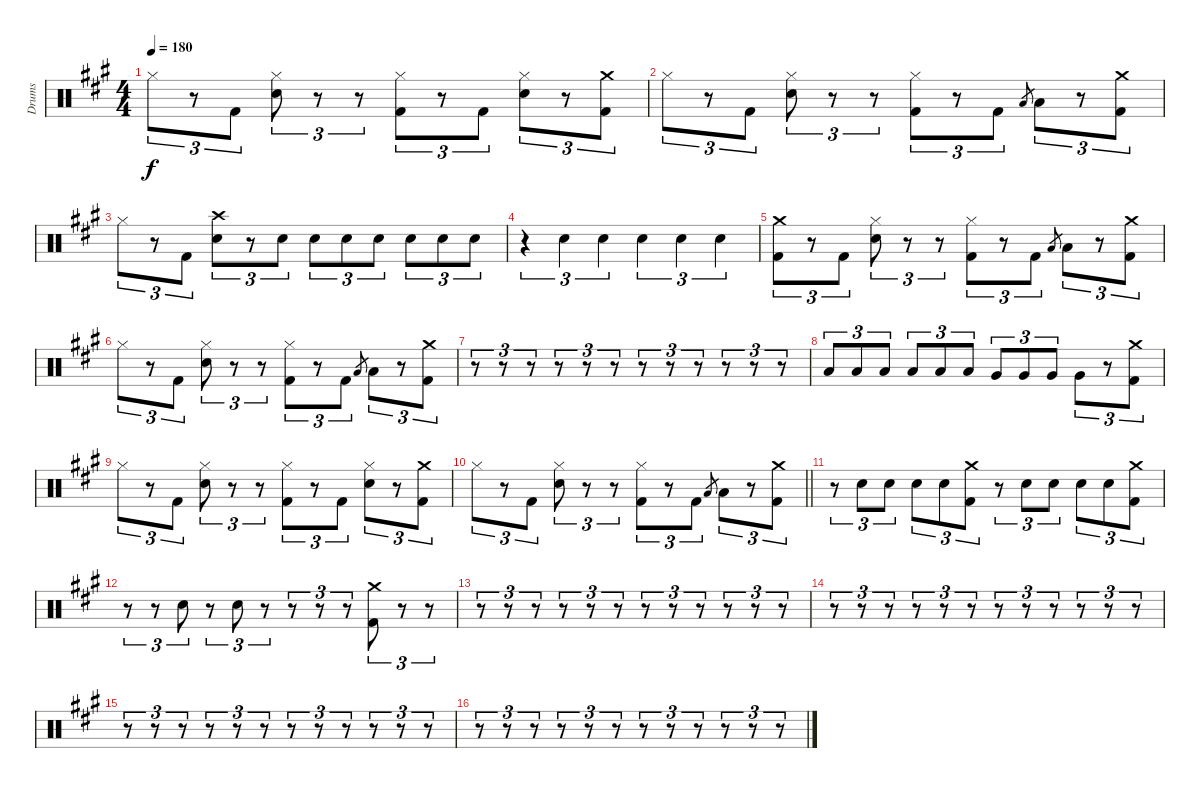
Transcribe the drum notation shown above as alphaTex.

\track ("Drums" "Drums") {instrument percussion}
\staff {score}
\articulation defaults
\ts (4 4)
\tempo 180
\clef neutral
\ks a "Hi-Hat (closed)".8{tu (3 2) dy f}
r.8{tu (3 2)} "Kick (hit) 2".8{tu (3 2)} ("Hi-Hat (closed)" "Snare (hit) 2").8{tu (3 2)} r.8{tu (3 2)} r.8{tu (3 2)} ("Hi-Hat (closed)" "Kick (hit) 2").8{tu (3 2)} r.8{tu (3 2)} "Kick (hit) 2".8{tu (3 2)} ("Hi-Hat (closed)" "Snare (hit) 2").8{tu (3 2)} r.8{tu (3 2)} ("Crash medium (hit)" "Kick (hit) 2").8{tu (3 2)} |
"Hi-Hat (closed)".8{tu (3 2)} r.8{tu (3 2)} "Kick (hit) 2".8{tu (3 2)} ("Hi-Hat (closed)" "Snare (hit) 2").8{tu (3 2)} r.8{tu (3 2)} r.8{tu (3 2)} ("Hi-Hat (closed)" "Kick (hit) 2").8{tu (3 2)} r.8{tu (3 2)} "Kick (hit) 2".8{tu (3 2)} "Low Tom (hit)".8{gr} "Low Floor Tom (hit)".8{tu (3 2)} r.8{tu (3 2)} ("Crash medium (hit)" "Kick (hit) 2").8{tu (3 2)} |
"Hi-Hat (closed)".8{tu (3 2)} r.8{tu (3 2)} "Kick (hit) 2".8{tu (3 2)} ("Crash high (hit)" "Snare (hit) 2").8{tu (3 2)} r.8{tu (3 2)} "Snare (hit) 2".8{tu (3 2)} "Snare (hit) 2".8{tu (3 2)} "Snare (hit) 2".8{tu (3 2)} "Snare (hit) 2".8{tu (3 2)} "Snare (hit) 2".8{tu (3 2)} "Snare (hit) 2".8{tu (3 2)} "Snare (hit) 2".8{tu (3 2)} |
r.4{tu (3 2)} "Snare (hit) 2".4{tu (3 2)} "Snare (hit) 2".4{tu (3 2)} "Snare (hit) 2".4{tu (3 2)} "Snare (hit) 2".4{tu (3 2)} "Snare (hit) 2".4{tu (3 2)} |
("Crash medium (hit)" "Kick (hit) 2").8{tu (3 2)} r.8{tu (3 2)} "Kick (hit) 2".8{tu (3 2)} ("Hi-Hat (closed)" "Snare (hit) 2").8{tu (3 2)} r.8{tu (3 2)} r.8{tu (3 2)} ("Hi-Hat (closed)" "Kick (hit) 2").8{tu (3 2)} r.8{tu (3 2)} "Kick (hit) 2".8{tu (3 2)} "Low Tom (hit)".8{gr} "Low Floor Tom (hit)".8{tu (3 2)} r.8{tu (3 2)} ("Crash medium (hit)" "Kick (hit) 2").8{tu (3 2)} |
"Hi-Hat (closed)".8{tu (3 2)} r.8{tu (3 2)} "Kick (hit) 2".8{tu (3 2)} ("Hi-Hat (closed)" "Snare (hit) 2").8{tu (3 2)} r.8{tu (3 2)} r.8{tu (3 2)} ("Hi-Hat (closed)" "Kick (hit) 2").8{tu (3 2)} r.8{tu (3 2)} "Kick (hit) 2".8{tu (3 2)} "Low Tom (hit)".8{gr} "Low Floor Tom (hit)".8{tu (3 2)} r.8{tu (3 2)} ("Crash medium (hit)" "Kick (hit) 2").8{tu (3 2)} |
r.8{tu (3 2)} r.8{tu (3 2)} r.8{tu (3 2)} r.8{tu (3 2)} r.8{tu (3 2)} r.8{tu (3 2)} r.8{tu (3 2)} r.8{tu (3 2)} r.8{tu (3 2)} r.8{tu (3 2)} r.8{tu (3 2)} r.8{tu (3 2)} |
"Low Tom (hit)".8{tu (3 2)} "Low Tom (hit)".8{tu (3 2)} "Low Tom (hit)".8{tu (3 2)} "Low Tom (hit)".8{tu (3 2)} "Low Tom (hit)".8{tu (3 2)} "Low Tom (hit)".8{tu (3 2)} "Very Low Tom (hit)".8{tu (3 2)} "Very Low Tom (hit)".8{tu (3 2)} "Very Low Tom (hit)".8{tu (3 2)} "Very Low Tom (hit)".8{tu (3 2)} r.8{tu (3 2)} ("Crash medium (hit)" "Kick (hit) 2").8{tu (3 2)} |
"Hi-Hat (closed)".8{tu (3 2)} r.8{tu (3 2)} "Kick (hit) 2".8{tu (3 2)} ("Hi-Hat (closed)" "Snare (hit) 2").8{tu (3 2)} r.8{tu (3 2)} r.8{tu (3 2)} ("Hi-Hat (closed)" "Kick (hit) 2").8{tu (3 2)} r.8{tu (3 2)} "Kick (hit) 2".8{tu (3 2)} ("Hi-Hat (closed)" "Snare (hit) 2").8{tu (3 2)} r.8{tu (3 2)} ("Crash medium (hit)" "Kick (hit) 2").8{tu (3 2)} |
\barLineRight lightlight "Hi-Hat (closed)".8{tu (3 2)}
r.8{tu (3 2)} "Kick (hit) 2".8{tu (3 2)} ("Hi-Hat (closed)" "Snare (hit) 2").8{tu (3 2)} r.8{tu (3 2)} r.8{tu (3 2)} ("Hi-Hat (closed)" "Kick (hit) 2").8{tu (3 2)} r.8{tu (3 2)} "Kick (hit) 2".8{tu (3 2)} "Low Tom (hit)".8{gr} "Low Floor Tom (hit)".8{tu (3 2)} r.8{tu (3 2)} ("Crash medium (hit)" "Kick (hit) 2").8{tu (3 2)} |
r.8{tu (3 2)} "Snare (hit) 2".8{tu (3 2)} "Snare (hit) 2".8{tu (3 2)} "Snare (hit) 2".8{tu (3 2)} "Snare (hit) 2".8{tu (3 2)} ("Crash medium (hit)" "Kick (hit) 2").8{tu (3 2)} r.8{tu (3 2)} "Snare (hit) 2".8{tu (3 2)} "Snare (hit) 2".8{tu (3 2)} "Snare (hit) 2".8{tu (3 2)} "Snare (hit) 2".8{tu (3 2)} ("Crash medium (hit)" "Kick (hit) 2").8{tu (3 2)} |
r.8{tu (3 2)} r.8{tu (3 2)} "Snare (hit) 2".8{tu (3 2)} r.8{tu (3 2)} "Snare (hit) 2".8{tu (3 2)} r.8{tu (3 2)} r.8{tu (3 2)} r.8{tu (3 2)} r.8{tu (3 2)} ("Crash medium (hit)" "Kick (hit) 2").8{tu (3 2)} r.8{tu (3 2)} r.8{tu (3 2)} |
r.8{tu (3 2)} r.8{tu (3 2)} r.8{tu (3 2)} r.8{tu (3 2)} r.8{tu (3 2)} r.8{tu (3 2)} r.8{tu (3 2)} r.8{tu (3 2)} r.8{tu (3 2)} r.8{tu (3 2)} r.8{tu (3 2)} r.8{tu (3 2)} |
r.8{tu (3 2)} r.8{tu (3 2)} r.8{tu (3 2)} r.8{tu (3 2)} r.8{tu (3 2)} r.8{tu (3 2)} r.8{tu (3 2)} r.8{tu (3 2)} r.8{tu (3 2)} r.8{tu (3 2)} r.8{tu (3 2)} r.8{tu (3 2)} |
r.8{tu (3 2)} r.8{tu (3 2)} r.8{tu (3 2)} r.8{tu (3 2)} r.8{tu (3 2)} r.8{tu (3 2)} r.8{tu (3 2)} r.8{tu (3 2)} r.8{tu (3 2)} r.8{tu (3 2)} r.8{tu (3 2)} r.8{tu (3 2)} |
r.8{tu (3 2)} r.8{tu (3 2)} r.8{tu (3 2)} r.8{tu (3 2)} r.8{tu (3 2)} r.8{tu (3 2)} r.8{tu (3 2)} r.8{tu (3 2)} r.8{tu (3 2)} r.8{tu (3 2)} r.8{tu (3 2)} r.8{tu (3 2)}
